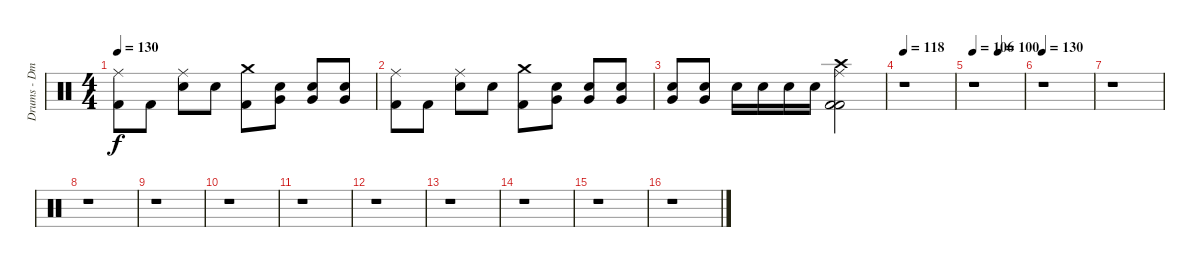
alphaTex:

\track ("Drums - Dmitriy Krivenkov" "Drums - Dm") {instrument percussion}
\staff {score}
\articulation defaults
\ts (4 4)
\tempo 130
\clef neutral
\ks c
("Kick (hit) 2" "Ride (middle)").8{dy f} "Kick (hit) 2".8 ("Ride (middle)" "Electric Snare (hit)").8 "Electric Snare (hit)".8 ("Kick (hit) 2" "Crash medium (hit)").8 ("Electric Snare (hit)" "Very Low Tom (hit)").8 ("Very Low Tom (hit)" "Electric Snare (hit)").8 ("Electric Snare (hit)" "Very Low Tom (hit)").8 |
("Kick (hit) 2" "Ride (middle)").8 "Kick (hit) 2".8 ("Ride (middle)" "Electric Snare (hit)").8 "Electric Snare (hit)".8 ("Kick (hit) 2" "Crash medium (hit)").8 ("Electric Snare (hit)" "Very Low Tom (hit)").8 ("Very Low Tom (hit)" "Electric Snare (hit)").8 ("Electric Snare (hit)" "Very Low Tom (hit)").8 |
("Electric Snare (hit)" "Very Low Tom (hit)").8 ("Very Low Tom (hit)" "Electric Snare (hit)").8 "Electric Snare (hit)".16 "Electric Snare (hit)".16 "Electric Snare (hit)".16 "Electric Snare (hit)".16 ("Kick (hit) 2" "Ride (middle)" "Kick (hit) 2" "Crash high (hit)").2 |
\tempo 118
r.1 |
\tempo 106
\tempo (100 0.5)
r.1 |
\tempo 130
r.1 |
r.1 |
r.1 |
r.1 |
r.1 |
r.1 |
r.1 |
r.1 |
r.1 |
r.1 |
r.1
